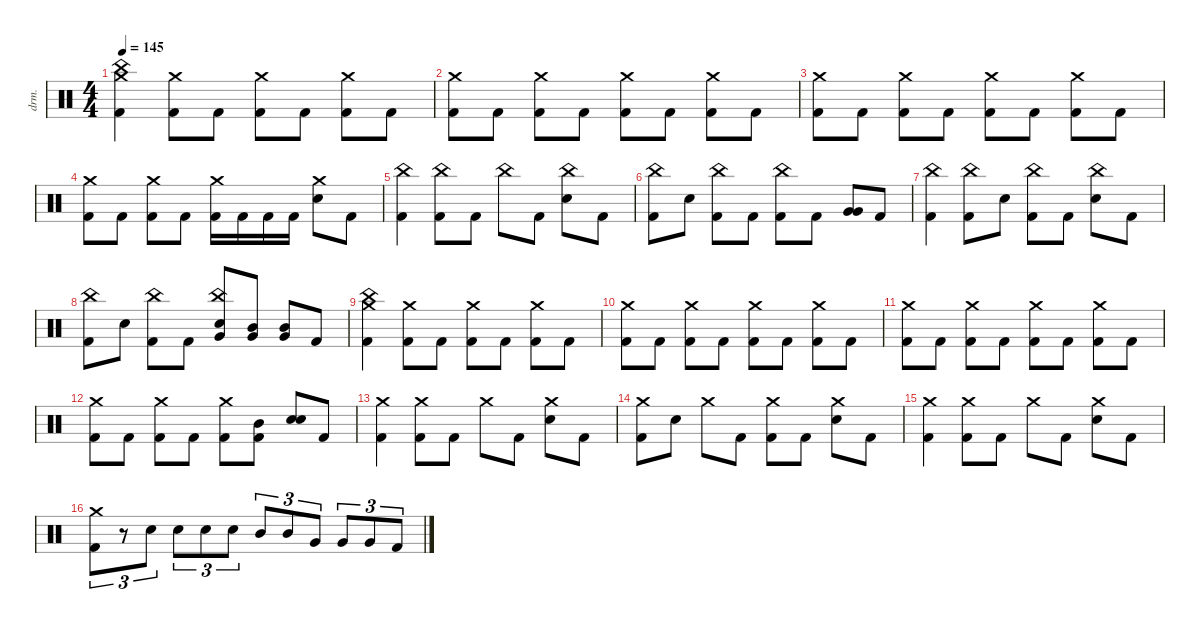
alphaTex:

\defaultSystemsLayout 4
\hideDynamics
\bracketExtendMode nobrackets
\track ("Drums - Mario" "drm.") {instrument percussion}
\staff {score}
\articulation defaults
\ts (4 4)
\tempo 145
\clef neutral
\ks c
("China (hit)" "Kick (hit) 2" "Crash medium (hit)").4{dy ff beam Down} ("Kick (hit) 2" "Crash medium (hit)").8{beam Down} "Kick (hit) 2".8{beam Down} ("Kick (hit) 2" "Crash medium (hit)").8{beam Down} "Kick (hit) 2".8{beam Down} ("Kick (hit) 2" "Crash medium (hit)").8{beam Down} "Kick (hit) 2".8{beam Down} |
("Kick (hit) 2" "Crash medium (hit)").8{beam Down} "Kick (hit) 2".8{beam Down} ("Kick (hit) 2" "Crash medium (hit)").8{beam Down} "Kick (hit) 2".8{beam Down} ("Kick (hit) 2" "Crash medium (hit)").8{beam Down} "Kick (hit) 2".8{beam Down} ("Kick (hit) 2" "Crash medium (hit)").8{beam Down} "Kick (hit) 2".8{beam Down} |
("Kick (hit) 2" "Crash medium (hit)").8{beam Down} "Kick (hit) 2".8{beam Down} ("Kick (hit) 2" "Crash medium (hit)").8{beam Down} "Kick (hit) 2".8{beam Down} ("Kick (hit) 2" "Crash medium (hit)").8{beam Down} "Kick (hit) 2".8{beam Down} ("Kick (hit) 2" "Crash medium (hit)").8{beam Down} "Kick (hit) 2".8{beam Down} |
("Kick (hit) 2" "Crash medium (hit)").8{beam Down} "Kick (hit) 2".8{beam Down} ("Kick (hit) 2" "Crash medium (hit)").8{beam Down} "Kick (hit) 2".8{beam Down} ("Kick (hit) 2" "Crash medium (hit)").16{beam Down} "Kick (hit) 2".16{beam Down} "Kick (hit) 2".16{beam Down} "Kick (hit) 2".16{beam Down} ("Crash medium (hit)" "Snare (hit) 2").8{beam Down} "Kick (hit) 2".8{beam Down} |
("China (hit)" "Kick (hit) 2").4{beam Down} ("Kick (hit) 2" "China (hit)").8{beam Down} "Kick (hit) 2".8{beam Down} "China (hit)".8{beam Down} "Kick (hit) 2".8{beam Down} ("Snare (hit) 2" "China (hit)").8{beam Down} "Kick (hit) 2".8{beam Down} |
("Kick (hit) 2" "China (hit)").8{beam Down} "Snare (hit) 2".8{beam Down} ("Kick (hit) 2" "China (hit)").8{beam Down} "Kick (hit) 2".8{beam Down} ("Kick (hit) 2" "China (hit)").8{beam Down} "Kick (hit) 2".8{beam Down} ("Very Low Tom (hit)" "Very Low Tom (hit)").8{beam Up} "Kick (hit) 2".8{beam Up} |
("China (hit)" "Kick (hit) 2").4{beam Down} ("Kick (hit) 2" "China (hit)").8{beam Down} "Snare (hit) 2".8{beam Down} ("China (hit)" "Kick (hit) 2").8{beam Down} "Kick (hit) 2".8{beam Down} ("Snare (hit) 2" "China (hit)").8{beam Down} "Kick (hit) 2".8{beam Down} |
("Kick (hit) 2" "China (hit)").8{beam Down} "Snare (hit) 2".8{beam Down} ("Kick (hit) 2" "China (hit)").8{beam Down} "Kick (hit) 2".8{beam Down} ("China (hit)" "Snare (hit) 2" "Very Low Tom (hit)").8{beam Up} ("Mid Tom (hit)" "Very Low Tom (hit)").8{beam Up} ("Very Low Tom (hit)" "Mid Tom (hit)").8{beam Up} "Kick (hit) 2".8{beam Up} |
("China (hit)" "Kick (hit) 2" "Crash medium (hit)").4{beam Down} ("Kick (hit) 2" "Crash medium (hit)").8{beam Down} "Kick (hit) 2".8{beam Down} ("Kick (hit) 2" "Crash medium (hit)").8{beam Down} "Kick (hit) 2".8{beam Down} ("Kick (hit) 2" "Crash medium (hit)").8{beam Down} "Kick (hit) 2".8{beam Down} |
("Kick (hit) 2" "Crash medium (hit)").8{beam Down} "Kick (hit) 2".8{beam Down} ("Kick (hit) 2" "Crash medium (hit)").8{beam Down} "Kick (hit) 2".8{beam Down} ("Kick (hit) 2" "Crash medium (hit)").8{beam Down} "Kick (hit) 2".8{beam Down} ("Kick (hit) 2" "Crash medium (hit)").8{beam Down} "Kick (hit) 2".8{beam Down} |
("Kick (hit) 2" "Crash medium (hit)").8{beam Down} "Kick (hit) 2".8{beam Down} ("Kick (hit) 2" "Crash medium (hit)").8{beam Down} "Kick (hit) 2".8{beam Down} ("Kick (hit) 2" "Crash medium (hit)").8{beam Down} "Kick (hit) 2".8{beam Down} ("Kick (hit) 2" "Crash medium (hit)").8{beam Down} "Kick (hit) 2".8{beam Down} |
("Kick (hit) 2" "Crash medium (hit)").8{beam Down} "Kick (hit) 2".8{beam Down} ("Kick (hit) 2" "Crash medium (hit)").8{beam Down} "Kick (hit) 2".8{beam Down} ("Kick (hit) 2" "Crash medium (hit)").8{beam Down} ("Kick (hit) 2" "Mid Tom (hit)").8{beam Down} ("Snare (hit) 2" "Snare (hit) 2").8{beam Up} "Kick (hit) 2".8{beam Up} |
("Kick (hit) 2" "Crash medium (hit)").4{beam Down} ("Kick (hit) 2" "Crash medium (hit)").8{beam Down} "Kick (hit) 2".8{beam Down} "Crash medium (hit)".8{beam Down} "Kick (hit) 2".8{beam Down} ("Snare (hit) 2" "Crash medium (hit)").8{beam Down} "Kick (hit) 2".8{beam Down} |
("Kick (hit) 2" "Crash medium (hit)").8{beam Down} "Snare (hit) 2".8{beam Down} "Crash medium (hit)".8{beam Down} "Kick (hit) 2".8{beam Down} ("Kick (hit) 2" "Crash medium (hit)").8{beam Down} "Kick (hit) 2".8{beam Down} ("Snare (hit) 2" "Crash medium (hit)").8{beam Down} "Kick (hit) 2".8{beam Down} |
("Kick (hit) 2" "Crash medium (hit)").4{beam Down} ("Kick (hit) 2" "Crash medium (hit)").8{beam Down} "Kick (hit) 2".8{beam Down} "Crash medium (hit)".8{beam Down} "Kick (hit) 2".8{beam Down} ("Snare (hit) 2" "Crash medium (hit)").8{beam Down} "Kick (hit) 2".8{beam Down} |
("Kick (hit) 2" "Crash medium (hit)").8{tu (3 2) beam Down} r.8{tu (3 2) beam Down} "Snare (hit) 2".8{tu (3 2) beam Down} "Snare (hit) 2".8{tu (3 2) beam Down} "Snare (hit) 2".8{tu (3 2) beam Down} "Snare (hit) 2".8{tu (3 2) beam Down} "Mid Tom (hit)".8{tu (3 2) beam Up} "Mid Tom (hit)".8{tu (3 2) beam Up} "Very Low Tom (hit)".8{tu (3 2) beam Up} "Very Low Tom (hit)".8{tu (3 2) beam Up} "Very Low Tom (hit)".8{tu (3 2) beam Up} "Kick (hit) 2".8{tu (3 2) beam Up}
